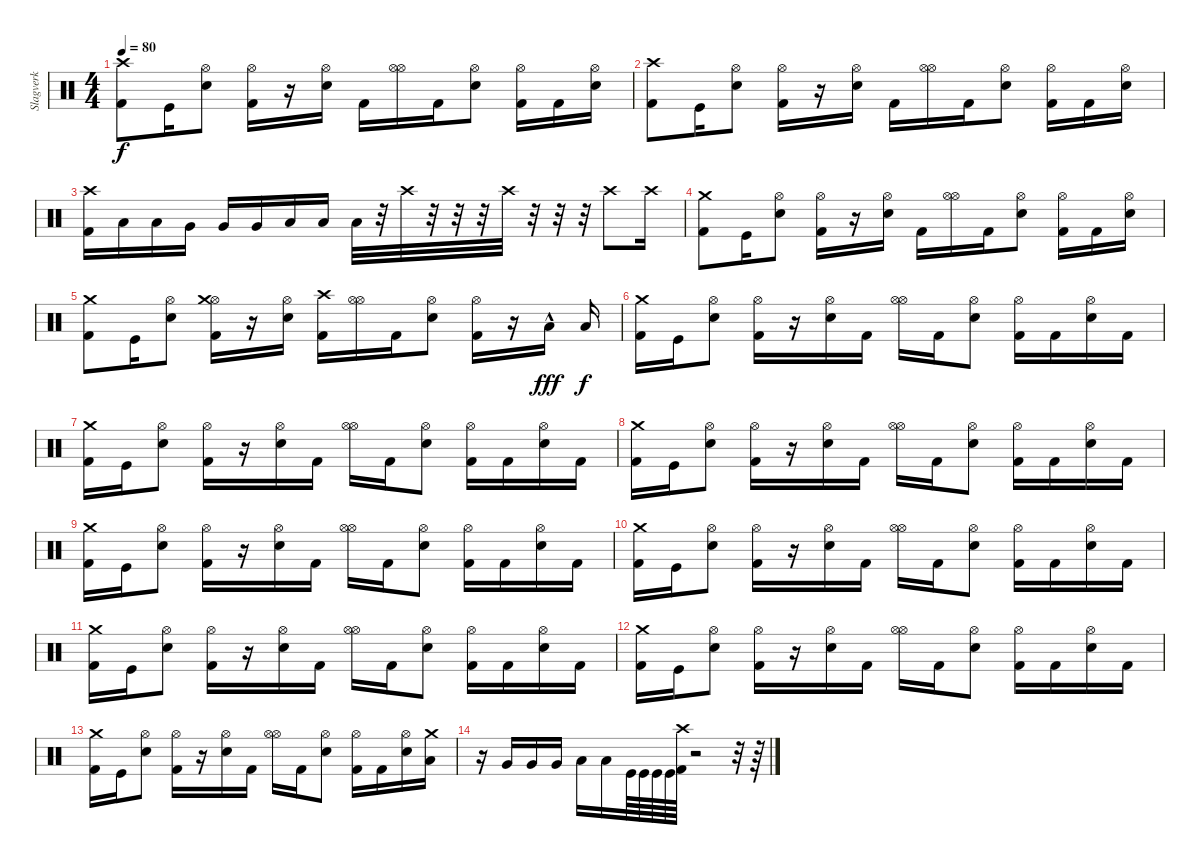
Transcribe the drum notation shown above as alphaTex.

\track ("Slagverk" "Slagverk") {instrument percussion}
\staff
\articulation defaults
\ts (4 4)
\tempo 80
\clef neutral
\ks c
("Crash high (hit)" "Kick (hit) 2").8{dy f} "Kick (hit)".16 ("Hi-Hat (open)" "Snare (hit) 2").8 ("Hi-Hat (open)" "Kick (hit) 2").16 r.16 ("Hi-Hat (open)" "Snare (hit) 2").16 "Kick (hit) 2".16 ("Hi-Hat (open)" "Hi-Hat (open)").16 "Kick (hit) 2".16 ("Hi-Hat (open)" "Snare (hit) 2").8 ("Hi-Hat (open)" "Kick (hit) 2").16 "Kick (hit) 2".16 ("Hi-Hat (open)" "Snare (hit) 2").16 |
("Crash high (hit)" "Kick (hit) 2").8 "Kick (hit)".16 ("Hi-Hat (open)" "Snare (hit) 2").8 ("Hi-Hat (open)" "Kick (hit) 2").16 r.16 ("Hi-Hat (open)" "Snare (hit) 2").16 "Kick (hit) 2".16 ("Hi-Hat (open)" "Hi-Hat (open)").16 "Kick (hit) 2".16 ("Hi-Hat (open)" "Snare (hit) 2").8 ("Hi-Hat (open)" "Kick (hit) 2").16 "Kick (hit) 2".16 ("Hi-Hat (open)" "Snare (hit) 2").16 |
("Crash high (hit)" "Kick (hit) 2").16 "Low Tom (hit)".16 "Low Tom (hit)".16 "Very Low Tom (hit)".16 "Very Low Tom (hit)".16 "Very Low Tom (hit)".16 "Low Floor Tom (hit)".16 "Low Floor Tom (hit)".16 "Low Floor Tom (hit)".32 r.32 "Crash high (hit)".32 r.32 r.32 r.32 "Crash high (hit)".32 r.32 r.32 r.32 "Crash high (hit)".8 "Crash high (hit)".16 |
("Crash medium (hit)" "Kick (hit) 2").8 "Kick (hit)".16 ("Hi-Hat (open)" "Snare (hit) 2").8 ("Hi-Hat (open)" "Kick (hit) 2").16 r.16 ("Hi-Hat (open)" "Snare (hit) 2").16 "Kick (hit) 2".16 ("Hi-Hat (open)" "Hi-Hat (open)").16 "Kick (hit) 2".16 ("Hi-Hat (open)" "Snare (hit) 2").8 ("Hi-Hat (open)" "Kick (hit) 2").16 "Kick (hit) 2".16 ("Hi-Hat (open)" "Snare (hit) 2").16 |
("Crash medium (hit)" "Kick (hit) 2").8 "Kick (hit)".16 ("Hi-Hat (open)" "Snare (hit) 2").8 ("Hi-Hat (open)" "Kick (hit) 2" "Crash medium (hit)").16 r.16 ("Hi-Hat (open)" "Snare (hit) 2").16 ("Kick (hit) 2" "Crash high (hit)").16 ("Hi-Hat (open)" "Hi-Hat (open)").16 "Kick (hit) 2".16 ("Hi-Hat (open)" "Snare (hit) 2").8 ("Hi-Hat (open)" "Kick (hit) 2").16 r.16 "Low Floor Tom (hit)"{hac}.16{dy fff} "Low Floor Tom (hit)".16{dy f} |
("Crash medium (hit)" "Kick (hit) 2").16 "Kick (hit)".16 ("Hi-Hat (open)" "Snare (hit) 2").8 ("Hi-Hat (open)" "Kick (hit) 2").16 r.16 ("Hi-Hat (open)" "Snare (hit) 2").16 "Kick (hit) 2".16 ("Hi-Hat (open)" "Hi-Hat (open)").16 "Kick (hit) 2".16 ("Hi-Hat (open)" "Snare (hit) 2").8 ("Hi-Hat (open)" "Kick (hit) 2").16 "Kick (hit) 2".16 ("Hi-Hat (open)" "Snare (hit) 2").16 "Kick (hit) 2".16 |
("Crash medium (hit)" "Kick (hit) 2").16 "Kick (hit)".16 ("Hi-Hat (open)" "Snare (hit) 2").8 ("Hi-Hat (open)" "Kick (hit) 2").16 r.16 ("Hi-Hat (open)" "Snare (hit) 2").16 "Kick (hit) 2".16 ("Hi-Hat (open)" "Hi-Hat (open)").16 "Kick (hit) 2".16 ("Hi-Hat (open)" "Snare (hit) 2").8 ("Hi-Hat (open)" "Kick (hit) 2").16 "Kick (hit) 2".16 ("Hi-Hat (open)" "Snare (hit) 2").16 "Kick (hit) 2".16 |
("Crash medium (hit)" "Kick (hit) 2").16 "Kick (hit)".16 ("Hi-Hat (open)" "Snare (hit) 2").8 ("Hi-Hat (open)" "Kick (hit) 2").16 r.16 ("Hi-Hat (open)" "Snare (hit) 2").16 "Kick (hit) 2".16 ("Hi-Hat (open)" "Hi-Hat (open)").16 "Kick (hit) 2".16 ("Hi-Hat (open)" "Snare (hit) 2").8 ("Hi-Hat (open)" "Kick (hit) 2").16 "Kick (hit) 2".16 ("Hi-Hat (open)" "Snare (hit) 2").16 "Kick (hit) 2".16 |
("Crash medium (hit)" "Kick (hit) 2").16 "Kick (hit)".16 ("Hi-Hat (open)" "Snare (hit) 2").8 ("Hi-Hat (open)" "Kick (hit) 2").16 r.16 ("Hi-Hat (open)" "Snare (hit) 2").16 "Kick (hit) 2".16 ("Hi-Hat (open)" "Hi-Hat (open)").16 "Kick (hit) 2".16 ("Hi-Hat (open)" "Snare (hit) 2").8 ("Hi-Hat (open)" "Kick (hit) 2").16 "Kick (hit) 2".16 ("Hi-Hat (open)" "Snare (hit) 2").16 "Kick (hit) 2".16 |
("Crash medium (hit)" "Kick (hit) 2").16 "Kick (hit)".16 ("Hi-Hat (open)" "Snare (hit) 2").8 ("Hi-Hat (open)" "Kick (hit) 2").16 r.16 ("Hi-Hat (open)" "Snare (hit) 2").16 "Kick (hit) 2".16 ("Hi-Hat (open)" "Hi-Hat (open)").16 "Kick (hit) 2".16 ("Hi-Hat (open)" "Snare (hit) 2").8 ("Hi-Hat (open)" "Kick (hit) 2").16 "Kick (hit) 2".16 ("Hi-Hat (open)" "Snare (hit) 2").16 "Kick (hit) 2".16 |
("Crash medium (hit)" "Kick (hit) 2").16 "Kick (hit)".16 ("Hi-Hat (open)" "Snare (hit) 2").8 ("Hi-Hat (open)" "Kick (hit) 2").16 r.16 ("Hi-Hat (open)" "Snare (hit) 2").16 "Kick (hit) 2".16 ("Hi-Hat (open)" "Hi-Hat (open)").16 "Kick (hit) 2".16 ("Hi-Hat (open)" "Snare (hit) 2").8 ("Hi-Hat (open)" "Kick (hit) 2").16 "Kick (hit) 2".16 ("Hi-Hat (open)" "Snare (hit) 2").16 "Kick (hit) 2".16 |
("Crash medium (hit)" "Kick (hit) 2").16 "Kick (hit)".16 ("Hi-Hat (open)" "Snare (hit) 2").8 ("Hi-Hat (open)" "Kick (hit) 2").16 r.16 ("Hi-Hat (open)" "Snare (hit) 2").16 "Kick (hit) 2".16 ("Hi-Hat (open)" "Hi-Hat (open)").16 "Kick (hit) 2".16 ("Hi-Hat (open)" "Snare (hit) 2").8 ("Hi-Hat (open)" "Kick (hit) 2").16 "Kick (hit) 2".16 ("Hi-Hat (open)" "Snare (hit) 2").16 "Kick (hit) 2".16 |
("Crash medium (hit)" "Kick (hit) 2").16 "Kick (hit)".16 ("Hi-Hat (open)" "Snare (hit) 2").8 ("Hi-Hat (open)" "Kick (hit) 2").16 r.16 ("Hi-Hat (open)" "Snare (hit) 2").16 "Kick (hit) 2".16 ("Hi-Hat (open)" "Hi-Hat (open)").16 "Kick (hit) 2".16 ("Hi-Hat (open)" "Snare (hit) 2").8 ("Hi-Hat (open)" "Kick (hit) 2").16 "Kick (hit) 2".16 ("Hi-Hat (open)" "Snare (hit) 2").16 ("Low Tom (hit)" "Crash medium (hit)").16 |
r.16 "Very Low Tom (hit)".16 "Very Low Tom (hit)".16 "Very Low Tom (hit)".16 "Low Floor Tom (hit)".16 "Low Floor Tom (hit)".16 "Kick (hit)".64 "Kick (hit)".64 "Kick (hit)".64 "Kick (hit)".64 ("Crash high (hit)" "Kick (hit) 2").64 r.2 r.32 r.64
